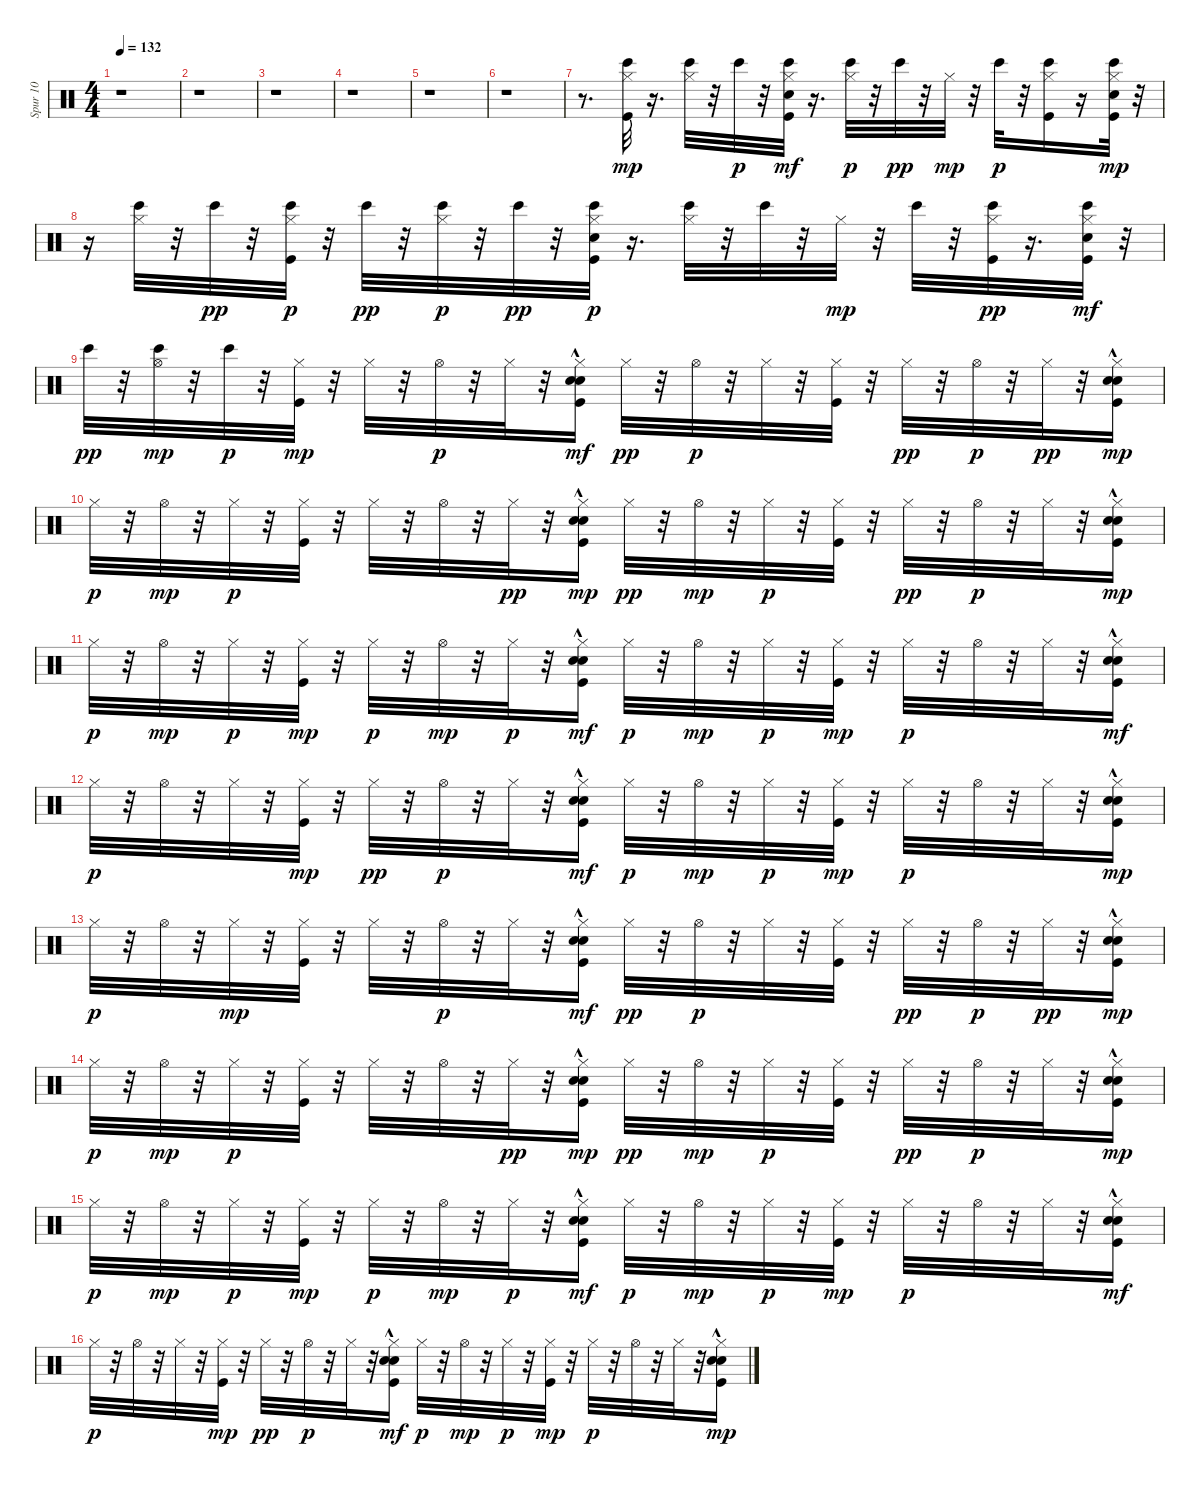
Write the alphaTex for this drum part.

\track ("Spur 10" "Spur 10") {instrument percussion}
\staff {score}
\articulation defaults
\ts (4 4)
\tempo 132
\clef neutral
\ks c
r.1{dy p} |
r.1 |
r.1 |
r.1 |
r.1 |
r.1 |
r.8{d} ("Bongo High (hit)" "Kick (hit)" "Hi-Hat (closed)").32{dy mp} r.16{d} ("Bongo High (hit)" "Hi-Hat (closed)").32 r.32 "Bongo High (hit)".32{dy p} r.32 ("Hi-Hat (closed)" "Snare (hit) 2" "Bongo High (hit)" "Kick (hit)").32{dy mf} r.16{d} ("Hi-Hat (closed)" "Bongo High (hit)").32{dy p} r.32 "Bongo High (hit)".32{dy pp} r.32 "Hi-Hat (closed)".32{dy mp} r.32 "Bongo High (hit)".32{dy p} r.32 ("Hi-Hat (closed)" "Bongo High (hit)" "Kick (hit)").16 r.16 ("Kick (hit)" "Bongo High (hit)" "Hi-Hat (closed)" "Snare (hit) 2").32{dy mp} r.32 |
r.16 ("Bongo High (hit)" "Hi-Hat (closed)").32 r.32 "Bongo High (hit)".32{dy pp} r.32 ("Hi-Hat (closed)" "Bongo High (hit)" "Kick (hit)").32{dy p} r.32 "Bongo High (hit)".32{dy pp} r.32 ("Hi-Hat (closed)" "Bongo High (hit)").32{dy p} r.32 "Bongo High (hit)".32{dy pp} r.32 ("Kick (hit)" "Hi-Hat (closed)" "Snare (hit) 2" "Bongo High (hit)").32{dy p} r.16{d} ("Bongo High (hit)" "Hi-Hat (closed)").32 r.32 "Bongo High (hit)".32 r.32 "Hi-Hat (closed)".32{dy mp} r.32 "Bongo High (hit)".32 r.32 ("Hi-Hat (closed)" "Bongo High (hit)" "Kick (hit)").32{dy pp} r.16{d} ("Kick (hit)" "Bongo High (hit)" "Hi-Hat (closed)" "Snare (hit) 2").32{dy mf} r.32 |
"Bongo High (hit)".32{dy pp} r.32 ("Hi-Hat (open)" "Bongo High (hit)").32{dy mp} r.32 "Bongo High (hit)".32{dy p} r.32 ("Kick (hit)" "Hi-Hat (closed)").32{dy mp} r.32 "Hi-Hat (closed)".32 r.32 "Hi-Hat (open)".32{dy p} r.32 "Hi-Hat (closed)".32 r.32 ("Hi-Hat (closed)" "Snare (hit) 2" "Kick (hit)" "Hand Clap (hit)"{hac}).16{dy mf} "Hi-Hat (closed)".32{dy pp} r.32 "Hi-Hat (open)".32{dy p} r.32 "Hi-Hat (closed)".32 r.32 ("Hi-Hat (closed)" "Kick (hit)").32 r.32 "Hi-Hat (closed)".32{dy pp} r.32 "Hi-Hat (open)".32{dy p} r.32 "Hi-Hat (closed)".32{dy pp} r.32 ("Hi-Hat (closed)" "Kick (hit)" "Snare (hit) 2" "Hand Clap (hit)"{hac}).16{dy mp} |
"Hi-Hat (closed)".32{dy p} r.32 "Hi-Hat (open)".32{dy mp} r.32 "Hi-Hat (closed)".32{dy p} r.32 ("Hi-Hat (closed)" "Kick (hit)").32 r.32 "Hi-Hat (closed)".32 r.32 "Hi-Hat (open)".32 r.32 "Hi-Hat (closed)".32{dy pp} r.32 ("Hi-Hat (closed)" "Kick (hit)" "Snare (hit) 2" "Hand Clap (hit)"{hac}).16{dy mp} "Hi-Hat (closed)".32{dy pp} r.32 "Hi-Hat (open)".32{dy mp} r.32 "Hi-Hat (closed)".32{dy p} r.32 ("Hi-Hat (closed)" "Kick (hit)").32 r.32 "Hi-Hat (closed)".32{dy pp} r.32 "Hi-Hat (open)".32{dy p} r.32 "Hi-Hat (closed)".32 r.32 ("Hi-Hat (closed)" "Kick (hit)" "Snare (hit) 2" "Hand Clap (hit)"{hac}).16{dy mp} |
"Hi-Hat (closed)".32{dy p} r.32 "Hi-Hat (open)".32{dy mp} r.32 "Hi-Hat (closed)".32{dy p} r.32 ("Hi-Hat (closed)" "Kick (hit)").32{dy mp} r.32 "Hi-Hat (closed)".32{dy p} r.32 "Hi-Hat (open)".32{dy mp} r.32 "Hi-Hat (closed)".32{dy p} r.32 ("Hi-Hat (closed)" "Snare (hit) 2" "Kick (hit)" "Hand Clap (hit)"{hac}).16{dy mf} "Hi-Hat (closed)".32{dy p} r.32 "Hi-Hat (open)".32{dy mp} r.32 "Hi-Hat (closed)".32{dy p} r.32 ("Hi-Hat (closed)" "Kick (hit)").32{dy mp} r.32 "Hi-Hat (closed)".32{dy p} r.32 "Hi-Hat (open)".32 r.32 "Hi-Hat (closed)".32 r.32 ("Hi-Hat (closed)" "Snare (hit) 2" "Kick (hit)" "Hand Clap (hit)"{hac}).16{dy mf} |
"Hi-Hat (closed)".32{dy p} r.32 "Hi-Hat (open)".32 r.32 "Hi-Hat (closed)".32 r.32 ("Hi-Hat (closed)" "Kick (hit)").32{dy mp} r.32 "Hi-Hat (closed)".32{dy pp} r.32 "Hi-Hat (open)".32{dy p} r.32 "Hi-Hat (closed)".32 r.32 ("Hi-Hat (closed)" "Snare (hit) 2" "Kick (hit)" "Hand Clap (hit)"{hac}).16{dy mf} "Hi-Hat (closed)".32{dy p} r.32 "Hi-Hat (open)".32{dy mp} r.32 "Hi-Hat (closed)".32{dy p} r.32 ("Hi-Hat (closed)" "Kick (hit)").32{dy mp} r.32 "Hi-Hat (closed)".32{dy p} r.32 "Hi-Hat (open)".32 r.32 "Hi-Hat (closed)".32 r.32 ("Hi-Hat (closed)" "Kick (hit)" "Snare (hit) 2" "Hand Clap (hit)"{hac}).16{dy mp} |
"Hi-Hat (closed)".32{dy p} r.32 "Hi-Hat (open)".32 r.32 "Hi-Hat (closed)".32{dy mp} r.32 ("Kick (hit)" "Hi-Hat (closed)").32 r.32 "Hi-Hat (closed)".32 r.32 "Hi-Hat (open)".32{dy p} r.32 "Hi-Hat (closed)".32 r.32 ("Hi-Hat (closed)" "Snare (hit) 2" "Kick (hit)" "Hand Clap (hit)"{hac}).16{dy mf} "Hi-Hat (closed)".32{dy pp} r.32 "Hi-Hat (open)".32{dy p} r.32 "Hi-Hat (closed)".32 r.32 ("Hi-Hat (closed)" "Kick (hit)").32 r.32 "Hi-Hat (closed)".32{dy pp} r.32 "Hi-Hat (open)".32{dy p} r.32 "Hi-Hat (closed)".32{dy pp} r.32 ("Hi-Hat (closed)" "Kick (hit)" "Snare (hit) 2" "Hand Clap (hit)"{hac}).16{dy mp} |
"Hi-Hat (closed)".32{dy p} r.32 "Hi-Hat (open)".32{dy mp} r.32 "Hi-Hat (closed)".32{dy p} r.32 ("Hi-Hat (closed)" "Kick (hit)").32 r.32 "Hi-Hat (closed)".32 r.32 "Hi-Hat (open)".32 r.32 "Hi-Hat (closed)".32{dy pp} r.32 ("Hi-Hat (closed)" "Kick (hit)" "Snare (hit) 2" "Hand Clap (hit)"{hac}).16{dy mp} "Hi-Hat (closed)".32{dy pp} r.32 "Hi-Hat (open)".32{dy mp} r.32 "Hi-Hat (closed)".32{dy p} r.32 ("Hi-Hat (closed)" "Kick (hit)").32 r.32 "Hi-Hat (closed)".32{dy pp} r.32 "Hi-Hat (open)".32{dy p} r.32 "Hi-Hat (closed)".32 r.32 ("Hi-Hat (closed)" "Kick (hit)" "Snare (hit) 2" "Hand Clap (hit)"{hac}).16{dy mp} |
"Hi-Hat (closed)".32{dy p} r.32 "Hi-Hat (open)".32{dy mp} r.32 "Hi-Hat (closed)".32{dy p} r.32 ("Hi-Hat (closed)" "Kick (hit)").32{dy mp} r.32 "Hi-Hat (closed)".32{dy p} r.32 "Hi-Hat (open)".32{dy mp} r.32 "Hi-Hat (closed)".32{dy p} r.32 ("Hi-Hat (closed)" "Snare (hit) 2" "Kick (hit)" "Hand Clap (hit)"{hac}).16{dy mf} "Hi-Hat (closed)".32{dy p} r.32 "Hi-Hat (open)".32{dy mp} r.32 "Hi-Hat (closed)".32{dy p} r.32 ("Hi-Hat (closed)" "Kick (hit)").32{dy mp} r.32 "Hi-Hat (closed)".32{dy p} r.32 "Hi-Hat (open)".32 r.32 "Hi-Hat (closed)".32 r.32 ("Hi-Hat (closed)" "Snare (hit) 2" "Kick (hit)" "Hand Clap (hit)"{hac}).16{dy mf} |
"Hi-Hat (closed)".32{dy p} r.32 "Hi-Hat (open)".32 r.32 "Hi-Hat (closed)".32 r.32 ("Hi-Hat (closed)" "Kick (hit)").32{dy mp} r.32 "Hi-Hat (closed)".32{dy pp} r.32 "Hi-Hat (open)".32{dy p} r.32 "Hi-Hat (closed)".32 r.32 ("Hi-Hat (closed)" "Snare (hit) 2" "Kick (hit)" "Hand Clap (hit)"{hac}).16{dy mf} "Hi-Hat (closed)".32{dy p} r.32 "Hi-Hat (open)".32{dy mp} r.32 "Hi-Hat (closed)".32{dy p} r.32 ("Hi-Hat (closed)" "Kick (hit)").32{dy mp} r.32 "Hi-Hat (closed)".32{dy p} r.32 "Hi-Hat (open)".32 r.32 "Hi-Hat (closed)".32 r.32 ("Hi-Hat (closed)" "Kick (hit)" "Snare (hit) 2" "Hand Clap (hit)"{hac}).16{dy mp}
